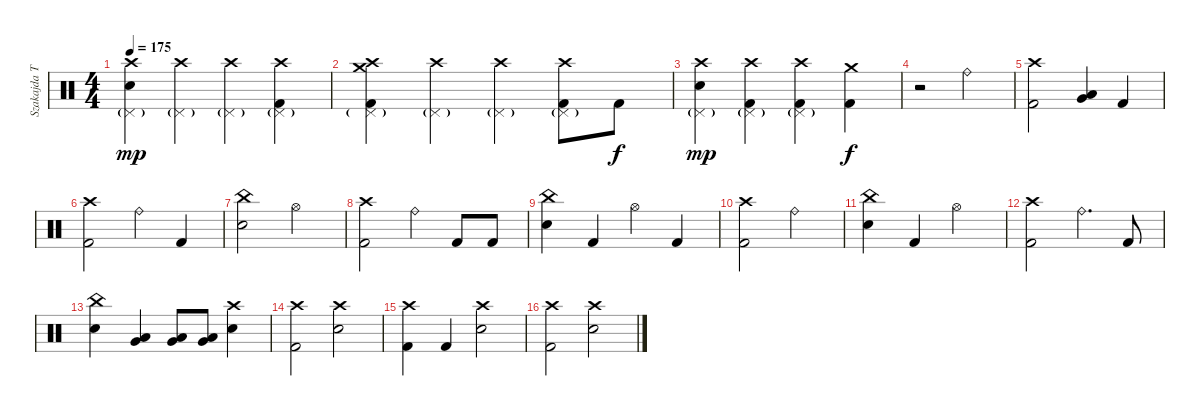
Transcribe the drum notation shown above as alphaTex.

\track ("Szakajda Tibi" "Szakajda T") {instrument percussion}
\staff {score}
\articulation defaults
\ts (4 4)
\tempo 175
\clef neutral
\ks c
("Crash high (hit)" "Pedal Hi-Hat (hit)"{g} "Snare (hit) 2").4{dy mp} ("Crash high (hit)" "Pedal Hi-Hat (hit)"{g}).4 ("Crash high (hit)" "Pedal Hi-Hat (hit)"{g}).4 ("Crash high (hit)" "Pedal Hi-Hat (hit)"{g} "Kick (hit) 2").4 |
("Crash high (hit)" "Pedal Hi-Hat (hit)"{g} "Crash medium (hit)" "Kick (hit) 2").4 ("Crash high (hit)" "Pedal Hi-Hat (hit)"{g}).4 ("Crash high (hit)" "Pedal Hi-Hat (hit)"{g}).4 ("Crash high (hit)" "Pedal Hi-Hat (hit)"{g} "Kick (hit) 2").8 "Kick (hit) 2".8{dy f} |
("Crash high (hit)" "Pedal Hi-Hat (hit)"{g} "Snare (hit) 2").4{dy mp} ("Crash high (hit)" "Pedal Hi-Hat (hit)"{g} "Kick (hit) 2").4 ("Crash high (hit)" "Pedal Hi-Hat (hit)"{g} "Kick (hit) 2").4 ("Crash medium (hit)" "Kick (hit) 2").4{dy f} |
r.2 "Ride (bell)".2 |
("Crash high (hit)" "Kick (hit) 2").2 ("Low Floor Tom (hit)" "Very Low Tom (hit)").4 "Kick (hit) 2".4 |
("Crash high (hit)" "Kick (hit) 2").2 "Ride (bell)".4 "Kick (hit) 2".4 |
("China (hit)" "Snare (hit) 2").2 "Hi-Hat (open)".2 |
("Crash high (hit)" "Kick (hit) 2").2 "Ride (bell)".4 "Kick (hit) 2".8 "Kick (hit) 2".8 |
("China (hit)" "Snare (hit) 2").4 "Kick (hit) 2".4 "Hi-Hat (open)".4 "Kick (hit) 2".4 |
("Crash high (hit)" "Kick (hit) 2").2 "Ride (bell)".2 |
("China (hit)" "Snare (hit) 2").4 "Kick (hit) 2".4 "Hi-Hat (open)".2 |
("Crash high (hit)" "Kick (hit) 2").2 "Ride (bell)".4{d} "Kick (hit) 2".8 |
("China (hit)" "Snare (hit) 2").4 ("Low Floor Tom (hit)" "Very Low Tom (hit)").4 ("Low Floor Tom (hit)" "Very Low Tom (hit)").8 ("Low Floor Tom (hit)" "Very Low Tom (hit)").8 ("Crash high (hit)" "Snare (hit) 2").4 |
("Crash high (hit)" "Kick (hit) 2").2 ("Crash high (hit)" "Snare (hit) 2").2 |
("Crash high (hit)" "Kick (hit) 2").4 "Kick (hit) 2".4 ("Crash high (hit)" "Snare (hit) 2").2 |
("Crash high (hit)" "Kick (hit) 2").2 ("Crash high (hit)" "Snare (hit) 2").2
